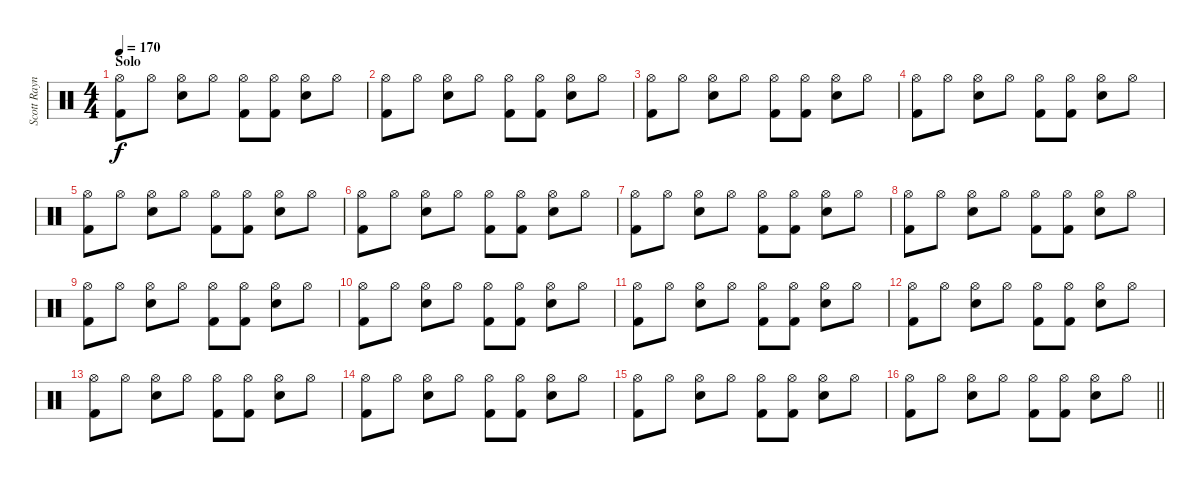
\track ("Scott Raynor" "Scott Rayn") {instrument percussion}
\staff {score}
\articulation defaults
\ts (4 4)
\section ("" "Solo")
\tempo 170
\clef neutral
\ks c
("Hi-Hat (open)" "Kick (hit) 2").8{dy f} "Hi-Hat (open)".8 ("Hi-Hat (open)" "Snare (hit) 2").8 "Hi-Hat (open)".8 ("Hi-Hat (open)" "Kick (hit) 2").8 ("Hi-Hat (open)" "Kick (hit) 2").8 ("Hi-Hat (open)" "Snare (hit) 2").8 "Hi-Hat (open)".8 |
("Hi-Hat (open)" "Kick (hit) 2").8 "Hi-Hat (open)".8 ("Hi-Hat (open)" "Snare (hit) 2").8 "Hi-Hat (open)".8 ("Hi-Hat (open)" "Kick (hit) 2").8 ("Hi-Hat (open)" "Kick (hit) 2").8 ("Hi-Hat (open)" "Snare (hit) 2").8 "Hi-Hat (open)".8 |
("Hi-Hat (open)" "Kick (hit) 2").8 "Hi-Hat (open)".8 ("Hi-Hat (open)" "Snare (hit) 2").8 "Hi-Hat (open)".8 ("Hi-Hat (open)" "Kick (hit) 2").8 ("Hi-Hat (open)" "Kick (hit) 2").8 ("Hi-Hat (open)" "Snare (hit) 2").8 "Hi-Hat (open)".8 |
("Hi-Hat (open)" "Kick (hit) 2").8 "Hi-Hat (open)".8 ("Hi-Hat (open)" "Snare (hit) 2").8 "Hi-Hat (open)".8 ("Hi-Hat (open)" "Kick (hit) 2").8 ("Hi-Hat (open)" "Kick (hit) 2").8 ("Hi-Hat (open)" "Snare (hit) 2").8 "Hi-Hat (open)".8 |
("Hi-Hat (open)" "Kick (hit) 2").8 "Hi-Hat (open)".8 ("Hi-Hat (open)" "Snare (hit) 2").8 "Hi-Hat (open)".8 ("Hi-Hat (open)" "Kick (hit) 2").8 ("Hi-Hat (open)" "Kick (hit) 2").8 ("Hi-Hat (open)" "Snare (hit) 2").8 "Hi-Hat (open)".8 |
("Hi-Hat (open)" "Kick (hit) 2").8 "Hi-Hat (open)".8 ("Hi-Hat (open)" "Snare (hit) 2").8 "Hi-Hat (open)".8 ("Hi-Hat (open)" "Kick (hit) 2").8 ("Hi-Hat (open)" "Kick (hit) 2").8 ("Hi-Hat (open)" "Snare (hit) 2").8 "Hi-Hat (open)".8 |
("Hi-Hat (open)" "Kick (hit) 2").8 "Hi-Hat (open)".8 ("Hi-Hat (open)" "Snare (hit) 2").8 "Hi-Hat (open)".8 ("Hi-Hat (open)" "Kick (hit) 2").8 ("Hi-Hat (open)" "Kick (hit) 2").8 ("Hi-Hat (open)" "Snare (hit) 2").8 "Hi-Hat (open)".8 |
("Hi-Hat (open)" "Kick (hit) 2").8 "Hi-Hat (open)".8 ("Hi-Hat (open)" "Snare (hit) 2").8 "Hi-Hat (open)".8 ("Hi-Hat (open)" "Kick (hit) 2").8 ("Hi-Hat (open)" "Kick (hit) 2").8 ("Hi-Hat (open)" "Snare (hit) 2").8 "Hi-Hat (open)".8 |
("Hi-Hat (open)" "Kick (hit) 2").8 "Hi-Hat (open)".8 ("Hi-Hat (open)" "Snare (hit) 2").8 "Hi-Hat (open)".8 ("Hi-Hat (open)" "Kick (hit) 2").8 ("Hi-Hat (open)" "Kick (hit) 2").8 ("Hi-Hat (open)" "Snare (hit) 2").8 "Hi-Hat (open)".8 |
("Hi-Hat (open)" "Kick (hit) 2").8 "Hi-Hat (open)".8 ("Hi-Hat (open)" "Snare (hit) 2").8 "Hi-Hat (open)".8 ("Hi-Hat (open)" "Kick (hit) 2").8 ("Hi-Hat (open)" "Kick (hit) 2").8 ("Hi-Hat (open)" "Snare (hit) 2").8 "Hi-Hat (open)".8 |
("Hi-Hat (open)" "Kick (hit) 2").8 "Hi-Hat (open)".8 ("Hi-Hat (open)" "Snare (hit) 2").8 "Hi-Hat (open)".8 ("Hi-Hat (open)" "Kick (hit) 2").8 ("Hi-Hat (open)" "Kick (hit) 2").8 ("Hi-Hat (open)" "Snare (hit) 2").8 "Hi-Hat (open)".8 |
("Hi-Hat (open)" "Kick (hit) 2").8 "Hi-Hat (open)".8 ("Hi-Hat (open)" "Snare (hit) 2").8 "Hi-Hat (open)".8 ("Hi-Hat (open)" "Kick (hit) 2").8 ("Hi-Hat (open)" "Kick (hit) 2").8 ("Hi-Hat (open)" "Snare (hit) 2").8 "Hi-Hat (open)".8 |
("Hi-Hat (open)" "Kick (hit) 2").8 "Hi-Hat (open)".8 ("Hi-Hat (open)" "Snare (hit) 2").8 "Hi-Hat (open)".8 ("Hi-Hat (open)" "Kick (hit) 2").8 ("Hi-Hat (open)" "Kick (hit) 2").8 ("Hi-Hat (open)" "Snare (hit) 2").8 "Hi-Hat (open)".8 |
("Hi-Hat (open)" "Kick (hit) 2").8 "Hi-Hat (open)".8 ("Hi-Hat (open)" "Snare (hit) 2").8 "Hi-Hat (open)".8 ("Hi-Hat (open)" "Kick (hit) 2").8 ("Hi-Hat (open)" "Kick (hit) 2").8 ("Hi-Hat (open)" "Snare (hit) 2").8 "Hi-Hat (open)".8 |
("Hi-Hat (open)" "Kick (hit) 2").8 "Hi-Hat (open)".8 ("Hi-Hat (open)" "Snare (hit) 2").8 "Hi-Hat (open)".8 ("Hi-Hat (open)" "Kick (hit) 2").8 ("Hi-Hat (open)" "Kick (hit) 2").8 ("Hi-Hat (open)" "Snare (hit) 2").8 "Hi-Hat (open)".8 |
\barLineRight lightlight
("Hi-Hat (open)" "Kick (hit) 2").8 "Hi-Hat (open)".8 ("Hi-Hat (open)" "Snare (hit) 2").8 "Hi-Hat (open)".8 ("Hi-Hat (open)" "Kick (hit) 2").8 ("Hi-Hat (open)" "Kick (hit) 2").8 ("Hi-Hat (open)" "Snare (hit) 2").8 "Hi-Hat (open)".8
